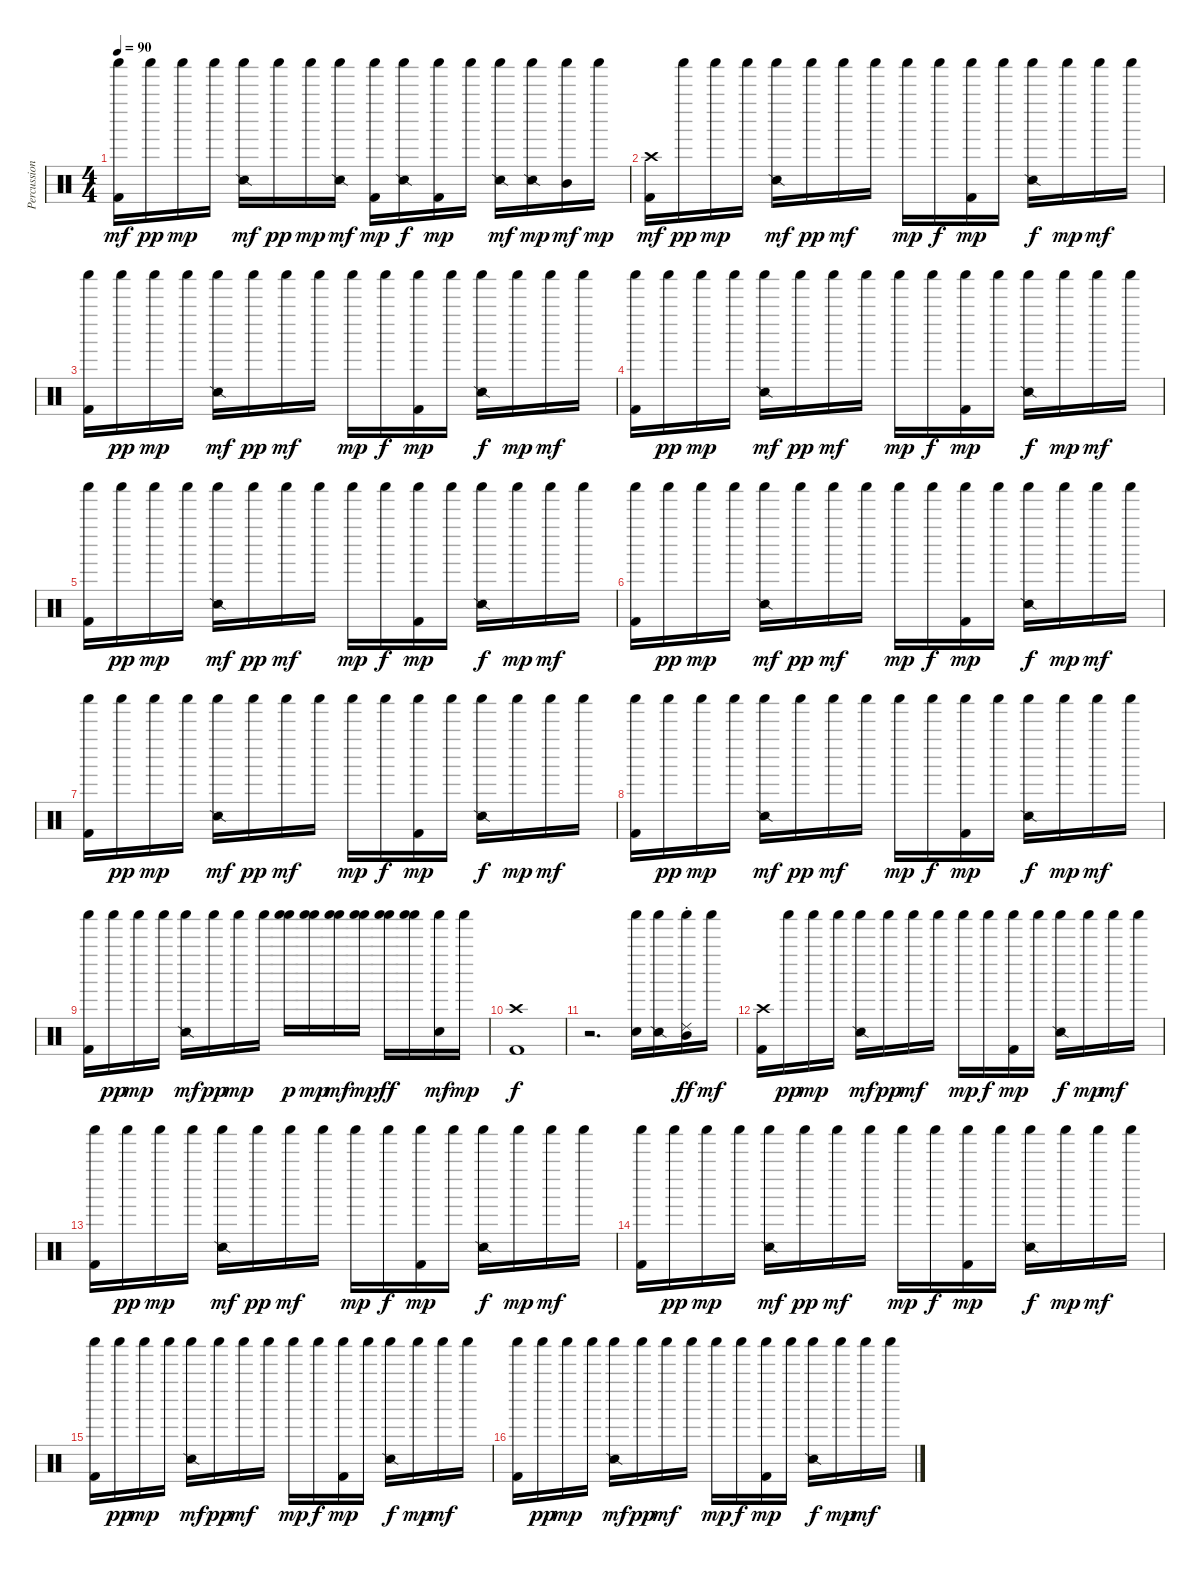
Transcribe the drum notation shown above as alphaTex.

\track ("Percussions" "Percussion") {instrument percussion}
\staff {score}
\articulation defaults
\ts (4 4)
\tempo 90
\clef neutral
\ks c
("Shaker (hit)" "Kick (hit) 2").16{dy mf} "Shaker (hit)".16{dy pp} "Shaker (hit)".16{dy mp} "Shaker (hit)".16 ("Shaker (hit)" "Snare (side stick) 2").16{dy mf} "Shaker (hit)".16{dy pp} "Shaker (hit)".16{dy mp} ("Shaker (hit)" "Snare (side stick) 2").16{dy mf} ("Shaker (hit)" "Kick (hit) 2").16{dy mp} ("Shaker (hit)" "Snare (side stick) 2").16{dy f} ("Shaker (hit)" "Kick (hit) 2").16{dy mp} "Shaker (hit)".16 ("Shaker (hit)" "Snare (side stick) 2").16{dy mf} ("Shaker (hit)" "Snare (side stick) 2").16{dy mp} ("Shaker (hit)" "Mid Tom (hit)").16{dy mf} "Shaker (hit)".16{dy mp} |
("Crash high (hit)" "Kick (hit) 2").16{dy mf} "Shaker (hit)".16{dy pp} "Shaker (hit)".16{dy mp} "Shaker (hit)".16 ("Shaker (hit)" "Snare (side stick) 2").16{dy mf} "Shaker (hit)".16{dy pp} "Shaker (hit)".16{dy mf} "Shaker (hit)".16 "Shaker (hit)".16{dy mp} "Shaker (hit)".16{dy f} ("Shaker (hit)" "Kick (hit) 2").16{dy mp} "Shaker (hit)".16 ("Shaker (hit)" "Snare (side stick) 2").16{dy f} "Shaker (hit)".16{dy mp} "Shaker (hit)".16{dy mf} "Shaker (hit)".16 |
("Shaker (hit)" "Kick (hit) 2").16 "Shaker (hit)".16{dy pp} "Shaker (hit)".16{dy mp} "Shaker (hit)".16 ("Shaker (hit)" "Snare (side stick) 2").16{dy mf} "Shaker (hit)".16{dy pp} "Shaker (hit)".16{dy mf} "Shaker (hit)".16 "Shaker (hit)".16{dy mp} "Shaker (hit)".16{dy f} ("Shaker (hit)" "Kick (hit) 2").16{dy mp} "Shaker (hit)".16 ("Shaker (hit)" "Snare (side stick) 2").16{dy f} "Shaker (hit)".16{dy mp} "Shaker (hit)".16{dy mf} "Shaker (hit)".16 |
("Shaker (hit)" "Kick (hit) 2").16 "Shaker (hit)".16{dy pp} "Shaker (hit)".16{dy mp} "Shaker (hit)".16 ("Shaker (hit)" "Snare (side stick) 2").16{dy mf} "Shaker (hit)".16{dy pp} "Shaker (hit)".16{dy mf} "Shaker (hit)".16 "Shaker (hit)".16{dy mp} "Shaker (hit)".16{dy f} ("Shaker (hit)" "Kick (hit) 2").16{dy mp} "Shaker (hit)".16 ("Shaker (hit)" "Snare (side stick) 2").16{dy f} "Shaker (hit)".16{dy mp} "Shaker (hit)".16{dy mf} "Shaker (hit)".16 |
("Shaker (hit)" "Kick (hit) 2").16 "Shaker (hit)".16{dy pp} "Shaker (hit)".16{dy mp} "Shaker (hit)".16 ("Shaker (hit)" "Snare (side stick) 2").16{dy mf} "Shaker (hit)".16{dy pp} "Shaker (hit)".16{dy mf} "Shaker (hit)".16 "Shaker (hit)".16{dy mp} "Shaker (hit)".16{dy f} ("Shaker (hit)" "Kick (hit) 2").16{dy mp} "Shaker (hit)".16 ("Shaker (hit)" "Snare (side stick) 2").16{dy f} "Shaker (hit)".16{dy mp} "Shaker (hit)".16{dy mf} "Shaker (hit)".16 |
("Shaker (hit)" "Kick (hit) 2").16 "Shaker (hit)".16{dy pp} "Shaker (hit)".16{dy mp} "Shaker (hit)".16 ("Shaker (hit)" "Snare (side stick) 2").16{dy mf} "Shaker (hit)".16{dy pp} "Shaker (hit)".16{dy mf} "Shaker (hit)".16 "Shaker (hit)".16{dy mp} "Shaker (hit)".16{dy f} ("Shaker (hit)" "Kick (hit) 2").16{dy mp} "Shaker (hit)".16 ("Shaker (hit)" "Snare (side stick) 2").16{dy f} "Shaker (hit)".16{dy mp} "Shaker (hit)".16{dy mf} "Shaker (hit)".16 |
("Shaker (hit)" "Kick (hit) 2").16 "Shaker (hit)".16{dy pp} "Shaker (hit)".16{dy mp} "Shaker (hit)".16 ("Shaker (hit)" "Snare (side stick) 2").16{dy mf} "Shaker (hit)".16{dy pp} "Shaker (hit)".16{dy mf} "Shaker (hit)".16 "Shaker (hit)".16{dy mp} "Shaker (hit)".16{dy f} ("Shaker (hit)" "Kick (hit) 2").16{dy mp} "Shaker (hit)".16 ("Shaker (hit)" "Snare (side stick) 2").16{dy f} "Shaker (hit)".16{dy mp} "Shaker (hit)".16{dy mf} "Shaker (hit)".16 |
("Shaker (hit)" "Kick (hit) 2").16 "Shaker (hit)".16{dy pp} "Shaker (hit)".16{dy mp} "Shaker (hit)".16 ("Shaker (hit)" "Snare (side stick) 2").16{dy mf} "Shaker (hit)".16{dy pp} "Shaker (hit)".16{dy mf} "Shaker (hit)".16 "Shaker (hit)".16{dy mp} "Shaker (hit)".16{dy f} ("Shaker (hit)" "Kick (hit) 2").16{dy mp} "Shaker (hit)".16 ("Shaker (hit)" "Snare (side stick) 2").16{dy f} "Shaker (hit)".16{dy mp} "Shaker (hit)".16{dy mf} "Shaker (hit)".16 |
("Shaker (hit)" "Kick (hit) 2").16 "Shaker (hit)".16{dy pp} "Shaker (hit)".16{dy mp} "Shaker (hit)".16 ("Shaker (hit)" "Snare (side stick) 2").16{dy mf} "Shaker (hit)".16{dy pp} "Shaker (hit)".16{dy mp} "Shaker (hit)".16 ("Shaker (hit)" "Shaker (hit)").16{dy p} ("Shaker (hit)" "Shaker (hit)").16{dy mp} ("Shaker (hit)" "Shaker (hit)").16{dy mf} ("Shaker (hit)" "Shaker (hit)").16{dy mp} ("Shaker (hit)" "Shaker (hit)").16{dy ff} ("Shaker (hit)" "Shaker (hit)").16 ("Shaker (hit)" "Snare (hit) 2").16{dy mf} "Shaker (hit)".16{dy mp} |
("Crash high (hit)" "Kick (hit) 2").1{dy f} |
r.2{d} ("Shaker (hit)" "Metronome (bell)").16 ("Shaker (hit)" "Snare (side stick) 2").16 ("Shaker (hit)" "Ride (choke) 2" "Mid Tom (hit)").16{dy ff} "Shaker (hit)".16{dy mf} |
("Crash high (hit)" "Kick (hit) 2").16 "Shaker (hit)".16{dy pp} "Shaker (hit)".16{dy mp} "Shaker (hit)".16 ("Shaker (hit)" "Snare (side stick) 2").16{dy mf} "Shaker (hit)".16{dy pp} "Shaker (hit)".16{dy mf} "Shaker (hit)".16 "Shaker (hit)".16{dy mp} "Shaker (hit)".16{dy f} ("Shaker (hit)" "Kick (hit) 2").16{dy mp} "Shaker (hit)".16 ("Shaker (hit)" "Snare (side stick) 2").16{dy f} "Shaker (hit)".16{dy mp} "Shaker (hit)".16{dy mf} "Shaker (hit)".16 |
("Shaker (hit)" "Kick (hit) 2").16 "Shaker (hit)".16{dy pp} "Shaker (hit)".16{dy mp} "Shaker (hit)".16 ("Shaker (hit)" "Snare (side stick) 2").16{dy mf} "Shaker (hit)".16{dy pp} "Shaker (hit)".16{dy mf} "Shaker (hit)".16 "Shaker (hit)".16{dy mp} "Shaker (hit)".16{dy f} ("Shaker (hit)" "Kick (hit) 2").16{dy mp} "Shaker (hit)".16 ("Shaker (hit)" "Snare (side stick) 2").16{dy f} "Shaker (hit)".16{dy mp} "Shaker (hit)".16{dy mf} "Shaker (hit)".16 |
("Shaker (hit)" "Kick (hit) 2").16 "Shaker (hit)".16{dy pp} "Shaker (hit)".16{dy mp} "Shaker (hit)".16 ("Shaker (hit)" "Snare (side stick) 2").16{dy mf} "Shaker (hit)".16{dy pp} "Shaker (hit)".16{dy mf} "Shaker (hit)".16 "Shaker (hit)".16{dy mp} "Shaker (hit)".16{dy f} ("Shaker (hit)" "Kick (hit) 2").16{dy mp} "Shaker (hit)".16 ("Shaker (hit)" "Snare (side stick) 2").16{dy f} "Shaker (hit)".16{dy mp} "Shaker (hit)".16{dy mf} "Shaker (hit)".16 |
("Shaker (hit)" "Kick (hit) 2").16 "Shaker (hit)".16{dy pp} "Shaker (hit)".16{dy mp} "Shaker (hit)".16 ("Shaker (hit)" "Snare (side stick) 2").16{dy mf} "Shaker (hit)".16{dy pp} "Shaker (hit)".16{dy mf} "Shaker (hit)".16 "Shaker (hit)".16{dy mp} "Shaker (hit)".16{dy f} ("Shaker (hit)" "Kick (hit) 2").16{dy mp} "Shaker (hit)".16 ("Shaker (hit)" "Snare (side stick) 2").16{dy f} "Shaker (hit)".16{dy mp} "Shaker (hit)".16{dy mf} "Shaker (hit)".16 |
("Shaker (hit)" "Kick (hit) 2").16 "Shaker (hit)".16{dy pp} "Shaker (hit)".16{dy mp} "Shaker (hit)".16 ("Shaker (hit)" "Snare (side stick) 2").16{dy mf} "Shaker (hit)".16{dy pp} "Shaker (hit)".16{dy mf} "Shaker (hit)".16 "Shaker (hit)".16{dy mp} "Shaker (hit)".16{dy f} ("Shaker (hit)" "Kick (hit) 2").16{dy mp} "Shaker (hit)".16 ("Shaker (hit)" "Snare (side stick) 2").16{dy f} "Shaker (hit)".16{dy mp} "Shaker (hit)".16{dy mf} "Shaker (hit)".16
